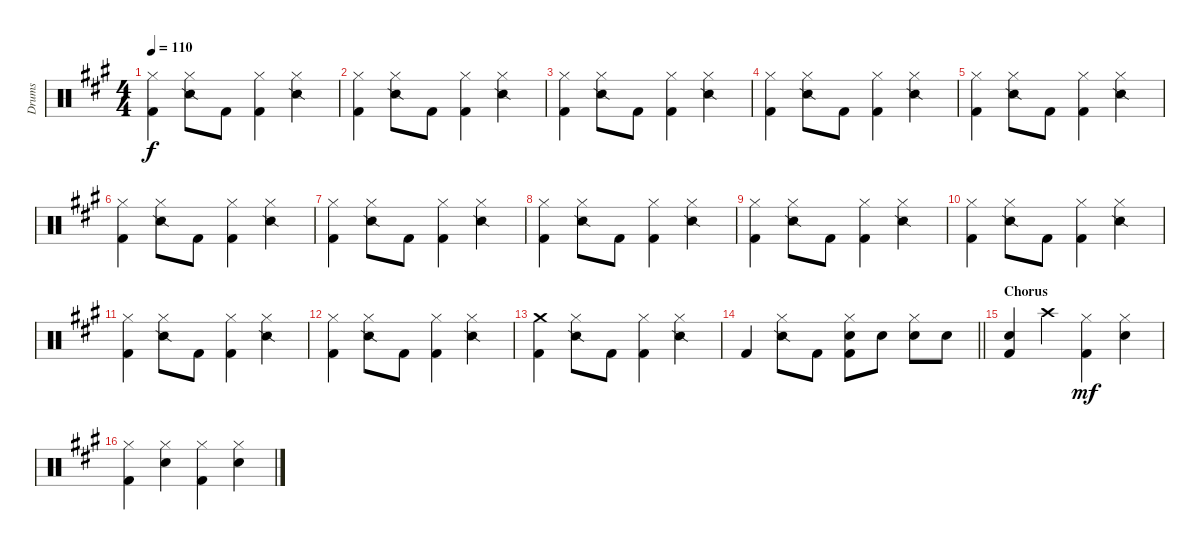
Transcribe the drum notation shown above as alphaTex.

\track ("Drums" "Drums") {instrument percussion}
\staff {score}
\articulation defaults
\ts (4 4)
\tempo 110
\clef neutral
\ks a
("Hi-Hat (closed)" "Kick (hit) 2").4{dy f} ("Hi-Hat (closed)" "Snare (side stick) 2").8 "Kick (hit) 2".8 ("Hi-Hat (closed)" "Kick (hit) 2").4 ("Hi-Hat (closed)" "Snare (side stick) 2").4 |
("Hi-Hat (closed)" "Kick (hit) 2").4 ("Hi-Hat (closed)" "Snare (side stick) 2").8 "Kick (hit) 2".8 ("Hi-Hat (closed)" "Kick (hit) 2").4 ("Hi-Hat (closed)" "Snare (side stick) 2").4 |
("Hi-Hat (closed)" "Kick (hit) 2").4 ("Hi-Hat (closed)" "Snare (side stick) 2").8 "Kick (hit) 2".8 ("Hi-Hat (closed)" "Kick (hit) 2").4 ("Hi-Hat (closed)" "Snare (side stick) 2").4 |
("Hi-Hat (closed)" "Kick (hit) 2").4 ("Hi-Hat (closed)" "Snare (side stick) 2").8 "Kick (hit) 2".8 ("Hi-Hat (closed)" "Kick (hit) 2").4 ("Hi-Hat (closed)" "Snare (side stick) 2").4 |
("Hi-Hat (closed)" "Kick (hit) 2").4 ("Hi-Hat (closed)" "Snare (side stick) 2").8 "Kick (hit) 2".8 ("Hi-Hat (closed)" "Kick (hit) 2").4 ("Hi-Hat (closed)" "Snare (side stick) 2").4 |
("Hi-Hat (closed)" "Kick (hit) 2").4 ("Hi-Hat (closed)" "Snare (side stick) 2").8 "Kick (hit) 2".8 ("Hi-Hat (closed)" "Kick (hit) 2").4 ("Hi-Hat (closed)" "Snare (side stick) 2").4 |
("Hi-Hat (closed)" "Kick (hit) 2").4 ("Hi-Hat (closed)" "Snare (side stick) 2").8 "Kick (hit) 2".8 ("Hi-Hat (closed)" "Kick (hit) 2").4 ("Hi-Hat (closed)" "Snare (side stick) 2").4 |
("Hi-Hat (closed)" "Kick (hit) 2").4 ("Hi-Hat (closed)" "Snare (side stick) 2").8 "Kick (hit) 2".8 ("Hi-Hat (closed)" "Kick (hit) 2").4 ("Hi-Hat (closed)" "Snare (side stick) 2").4 |
("Hi-Hat (closed)" "Kick (hit) 2").4 ("Hi-Hat (closed)" "Snare (side stick) 2").8 "Kick (hit) 2".8 ("Hi-Hat (closed)" "Kick (hit) 2").4 ("Hi-Hat (closed)" "Snare (side stick) 2").4 |
("Hi-Hat (closed)" "Kick (hit) 2").4 ("Hi-Hat (closed)" "Snare (side stick) 2").8 "Kick (hit) 2".8 ("Hi-Hat (closed)" "Kick (hit) 2").4 ("Hi-Hat (closed)" "Snare (side stick) 2").4 |
("Hi-Hat (closed)" "Kick (hit) 2").4 ("Hi-Hat (closed)" "Snare (side stick) 2").8 "Kick (hit) 2".8 ("Hi-Hat (closed)" "Kick (hit) 2").4 ("Hi-Hat (closed)" "Snare (side stick) 2").4 |
("Hi-Hat (closed)" "Kick (hit) 2").4 ("Hi-Hat (closed)" "Snare (side stick) 2").8 "Kick (hit) 2".8 ("Hi-Hat (closed)" "Kick (hit) 2").4 ("Hi-Hat (closed)" "Snare (side stick) 2").4 |
("Crash medium (hit)" "Kick (hit) 2").4 ("Hi-Hat (closed)" "Snare (side stick) 2").8 "Kick (hit) 2".8 ("Hi-Hat (closed)" "Kick (hit) 2").4 ("Hi-Hat (closed)" "Snare (side stick) 2").4 |
\barLineRight lightlight "Kick (hit) 2".4
("Hi-Hat (closed)" "Snare (side stick) 2").8 "Kick (hit) 2".8 ("Hi-Hat (closed)" "Snare (hit) 2" "Kick (hit) 2").8 "Snare (hit) 2".8 ("Hi-Hat (closed)" "Snare (hit) 2").8 "Snare (hit) 2".8 |
\section ("" "Chorus")
("Snare (hit) 2" "Kick (hit) 2").4 "Crash high (hit)".4 ("Hi-Hat (closed)" "Kick (hit) 2").4{dy mf} ("Hi-Hat (closed)" "Snare (hit) 2").4 |
("Hi-Hat (closed)" "Kick (hit) 2").4 ("Hi-Hat (closed)" "Snare (hit) 2").4 ("Hi-Hat (closed)" "Kick (hit) 2").4 ("Hi-Hat (closed)" "Snare (hit) 2").4
